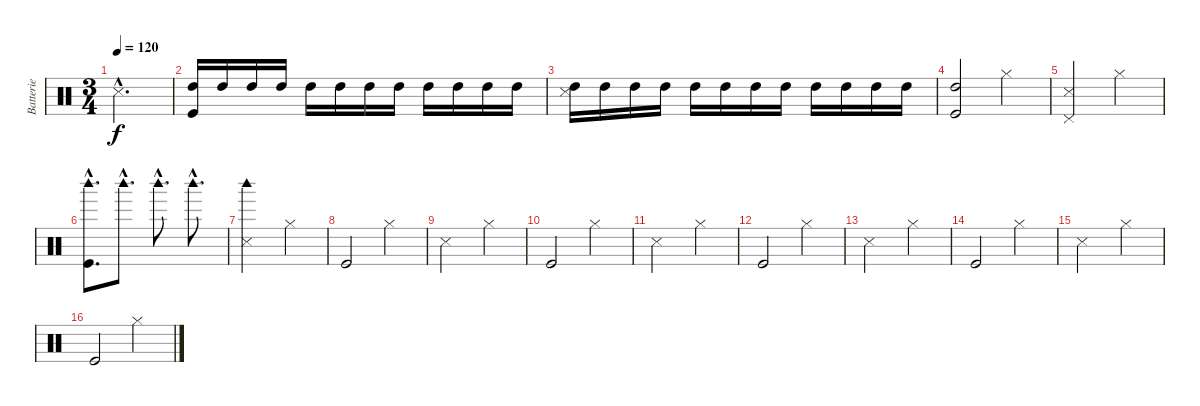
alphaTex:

\track ("Batterie" "Batterie") {instrument percussion}
\staff {score}
\articulation defaults
\ts (3 4)
\tempo 120
\clef neutral
\ks c "Snare (side stick) 3"{hac}.2{d dy f}
|
("High Tom (hit)" "Kick (hit)").16{volume 2} "High Tom (hit)".16 "High Tom (hit)".16 "High Tom (hit)".16 "High Tom (hit)".16{volume 4} "High Tom (hit)".16 "High Tom (hit)".16 "High Tom (hit)".16 "High Tom (hit)".16{volume 6} "High Tom (hit)".16 "High Tom (hit)".16 "High Tom (hit)".16 |
("High Tom (hit)" "Snare (side stick) 3").16{volume 8} "High Tom (hit)".16 "High Tom (hit)".16 "High Tom (hit)".16 "High Tom (hit)".16{volume 10} "High Tom (hit)".16 "High Tom (hit)".16 "High Tom (hit)".16 "High Tom (hit)".16{volume 12} "High Tom (hit)".16 "High Tom (hit)".16 "High Tom (hit)".16 |
("High Tom (hit)" "Kick (hit)").2{volume 13} "Hi-Hat (closed)".4 |
("Pedal Hi-Hat (hit)" "Snare (side stick) 3").2 "Hi-Hat (closed)".4 |
("Woodblock high (hit)"{hac} "Kick (hit)"{hac}).8{d} "Woodblock high (hit)"{hac}.8{d} "Woodblock high (hit)"{hac}.8{d} "Woodblock high (hit)"{hac}.8{d} |
("Woodblock high (hit)" "Snare (side stick) 3").2 "Hi-Hat (closed)".4 |
"Kick (hit)".2 "Hi-Hat (closed)".4 |
"Snare (side stick) 3".2 "Hi-Hat (closed)".4 |
"Kick (hit)".2 "Hi-Hat (closed)".4 |
"Snare (side stick) 3".2 "Hi-Hat (closed)".4 |
"Kick (hit)".2 "Hi-Hat (closed)".4 |
"Snare (side stick) 3".2 "Hi-Hat (closed)".4 |
"Kick (hit)".2{volume 11} "Hi-Hat (closed)".4 |
"Snare (side stick) 3".2{volume 9} "Hi-Hat (closed)".4 |
"Kick (hit)".2{volume 7} "Hi-Hat (closed)".4
